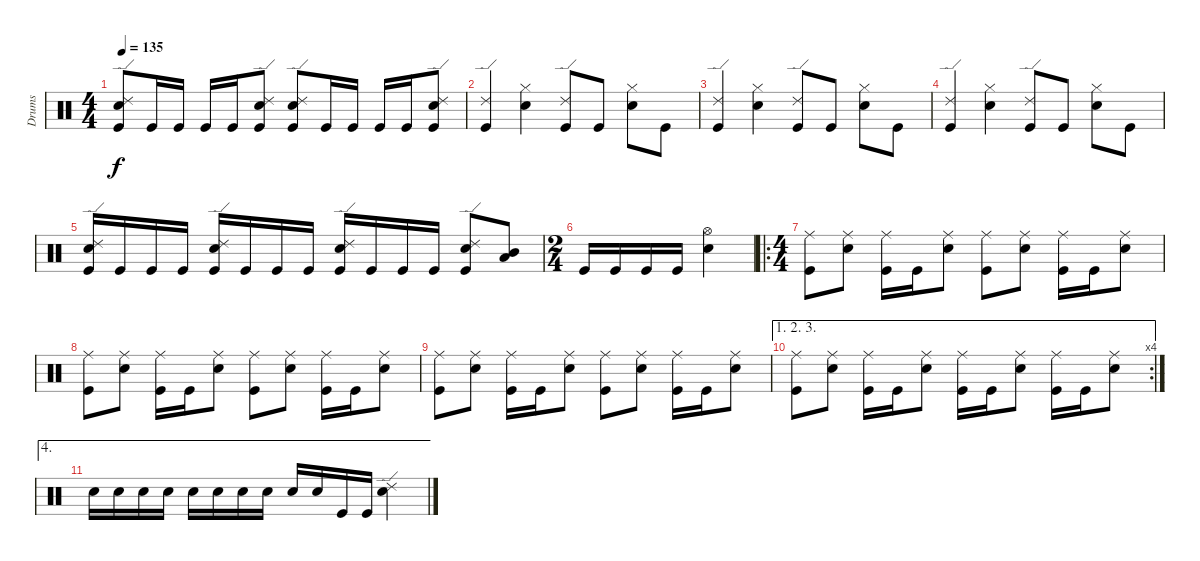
\track ("Drums" "Drums") {instrument percussion}
\staff {score}
\articulation defaults
\ts (4 4)
\tempo 135
\clef neutral
\ks c
("Kick (hit)" "Ride (edge) 2" "Snare (hit) 2").8{dy f} "Kick (hit)".16 "Kick (hit)".16 "Kick (hit)".16 "Kick (hit)".16 ("Snare (hit) 2" "Ride (edge) 2" "Kick (hit)").8 ("Snare (hit) 2" "Ride (edge) 2" "Kick (hit)").8 "Kick (hit)".16 "Kick (hit)".16 "Kick (hit)".16 "Kick (hit)".16 ("Snare (hit) 2" "Ride (edge) 2" "Kick (hit)").8 |
("Kick (hit)" "Ride (edge) 2").4 ("Hi-Hat (closed)" "Snare (hit) 2").4 ("Kick (hit)" "Ride (edge) 2").8 "Kick (hit)".8 ("Snare (hit) 2" "Hi-Hat (closed)").8 "Kick (hit)".8 |
("Kick (hit)" "Ride (edge) 2").4 ("Hi-Hat (closed)" "Snare (hit) 2").4 ("Kick (hit)" "Ride (edge) 2").8 "Kick (hit)".8 ("Snare (hit) 2" "Hi-Hat (closed)").8 "Kick (hit)".8 |
("Kick (hit)" "Ride (edge) 2").4 ("Hi-Hat (closed)" "Snare (hit) 2").4 ("Kick (hit)" "Ride (edge) 2").8 "Kick (hit)".8 ("Snare (hit) 2" "Hi-Hat (closed)").8 "Kick (hit)".8 |
("Kick (hit)" "Ride (edge) 2" "Snare (hit) 2").16 "Kick (hit)".16 "Kick (hit)".16 "Kick (hit)".16 ("Kick (hit)" "Ride (edge) 2" "Snare (hit) 2").16 "Kick (hit)".16 "Kick (hit)".16 "Kick (hit)".16 ("Kick (hit)" "Ride (edge) 2" "Snare (hit) 2").16 "Kick (hit)".16 "Kick (hit)".16 "Kick (hit)".16 ("Kick (hit)" "Ride (edge) 2" "Snare (hit) 2").8 ("Low Tom (hit)" "Mid Tom (hit)").8 |
\ts (2 4)
"Kick (hit)".16 "Kick (hit)".16 "Kick (hit)".16 "Kick (hit)".16 ("Snare (hit) 2" "Hi-Hat (open)").4 |
\ro
\ts (4 4)
("Kick (hit)" "Ride (middle)").8 ("Snare (hit) 2" "Ride (middle)").8 ("Kick (hit)" "Ride (middle)").16 "Kick (hit)".16 ("Snare (hit) 2" "Ride (middle)").8 ("Kick (hit)" "Ride (middle)").8 ("Snare (hit) 2" "Ride (middle)").8 ("Kick (hit)" "Ride (middle)").16 "Kick (hit)".16 ("Snare (hit) 2" "Ride (middle)").8 |
("Kick (hit)" "Ride (middle)").8 ("Snare (hit) 2" "Ride (middle)").8 ("Kick (hit)" "Ride (middle)").16 "Kick (hit)".16 ("Snare (hit) 2" "Ride (middle)").8 ("Kick (hit)" "Ride (middle)").8 ("Snare (hit) 2" "Ride (middle)").8 ("Kick (hit)" "Ride (middle)").16 "Kick (hit)".16 ("Snare (hit) 2" "Ride (middle)").8 |
("Kick (hit)" "Ride (middle)").8 ("Snare (hit) 2" "Ride (middle)").8 ("Kick (hit)" "Ride (middle)").16 "Kick (hit)".16 ("Snare (hit) 2" "Ride (middle)").8 ("Kick (hit)" "Ride (middle)").8 ("Snare (hit) 2" "Ride (middle)").8 ("Kick (hit)" "Ride (middle)").16 "Kick (hit)".16 ("Snare (hit) 2" "Ride (middle)").8 |
\ae (1 2 3)
\rc 4
("Kick (hit)" "Ride (middle)").8 ("Snare (hit) 2" "Ride (middle)").8 ("Kick (hit)" "Ride (middle)").16 "Kick (hit)".16 ("Snare (hit) 2" "Ride (middle)").8 ("Kick (hit)" "Ride (middle)").16 "Kick (hit)".16 ("Snare (hit) 2" "Ride (middle)").8 ("Kick (hit)" "Ride (middle)").16 "Kick (hit)".16 ("Snare (hit) 2" "Ride (middle)").8 |
\ae 4 "Snare (hit) 2".16 "Snare (hit) 2".16 "Snare (hit) 2".16 "Snare (hit) 2".16 "Snare (hit) 2".16 "Snare (hit) 2".16 "Snare (hit) 2".16 "Snare (hit) 2".16 "Snare (hit) 2".16 "Snare (hit) 2".16 "Kick (hit)".16 "Kick (hit)".16
("Ride (edge) 2" "Snare (hit) 2").4
